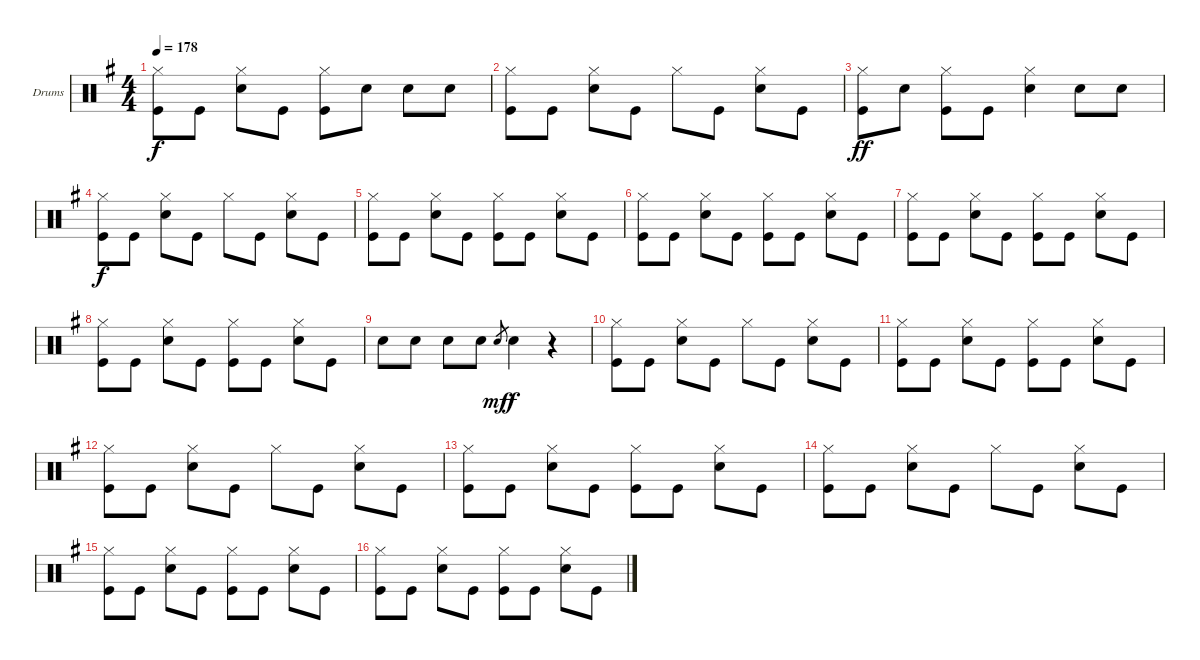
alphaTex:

\bracketExtendMode groupsimilarinstruments
\firstSystemTrackNameOrientation horizontal
\otherSystemsTrackNameOrientation horizontal
\track ("Drumkit" "Drums") {instrument percussion}
\staff {score}
\articulation defaults
\ts (4 4)
\tempo 178
\clef neutral
\ks eminor
("Hi-Hat (closed)" "Kick (hit)").8{dy f} "Kick (hit)".8 ("Hi-Hat (closed)" "Snare (hit) 2").8 "Kick (hit)".8 ("Hi-Hat (closed)" "Kick (hit)").8 "Snare (hit) 2".8 "Snare (hit) 2".8 "Snare (hit) 2".8 |
("Hi-Hat (closed)" "Kick (hit)").8 "Kick (hit)".8 ("Hi-Hat (closed)" "Snare (hit) 2").8 "Kick (hit)".8 "Hi-Hat (closed)".8 "Kick (hit)".8 ("Hi-Hat (closed)" "Snare (hit) 2").8 "Kick (hit)".8 |
("Hi-Hat (closed)" "Kick (hit)").8{dy ff} "Snare (hit) 2".8 ("Hi-Hat (closed)" "Kick (hit)").8 "Kick (hit)".8 ("Hi-Hat (closed)" "Snare (hit) 2").4 "Snare (hit) 2".8 "Snare (hit) 2".8 |
("Hi-Hat (closed)" "Kick (hit)").8{dy f} "Kick (hit)".8 ("Hi-Hat (closed)" "Snare (hit) 2").8 "Kick (hit)".8 "Hi-Hat (closed)".8 "Kick (hit)".8 ("Hi-Hat (closed)" "Snare (hit) 2").8 "Kick (hit)".8 |
("Hi-Hat (closed)" "Kick (hit)").8 "Kick (hit)".8 ("Hi-Hat (closed)" "Snare (hit) 2").8 "Kick (hit)".8 ("Hi-Hat (closed)" "Kick (hit)").8 "Kick (hit)".8 ("Hi-Hat (closed)" "Snare (hit) 2").8 "Kick (hit)".8 |
("Hi-Hat (closed)" "Kick (hit)").8 "Kick (hit)".8 ("Hi-Hat (closed)" "Snare (hit) 2").8 "Kick (hit)".8 ("Hi-Hat (closed)" "Kick (hit)").8 "Kick (hit)".8 ("Hi-Hat (closed)" "Snare (hit) 2").8 "Kick (hit)".8 |
("Hi-Hat (closed)" "Kick (hit)").8 "Kick (hit)".8 ("Hi-Hat (closed)" "Snare (hit) 2").8 "Kick (hit)".8 ("Hi-Hat (closed)" "Kick (hit)").8 "Kick (hit)".8 ("Hi-Hat (closed)" "Snare (hit) 2").8 "Kick (hit)".8 |
("Hi-Hat (closed)" "Kick (hit)").8 "Kick (hit)".8 ("Hi-Hat (closed)" "Snare (hit) 2").8 "Kick (hit)".8 ("Hi-Hat (closed)" "Kick (hit)").8 "Kick (hit)".8 ("Hi-Hat (closed)" "Snare (hit) 2").8 "Kick (hit)".8 |
"Snare (hit) 2".8 "Snare (hit) 2".8 "Snare (hit) 2".8 "Snare (hit) 2".8 "Snare (hit) 2".8{gr dy mf} "Snare (hit) 2".4{dy f} r.4 |
("Hi-Hat (closed)" "Kick (hit)").8 "Kick (hit)".8 ("Hi-Hat (closed)" "Snare (hit) 2").8 "Kick (hit)".8 "Hi-Hat (closed)".8 "Kick (hit)".8 ("Hi-Hat (closed)" "Snare (hit) 2").8 "Kick (hit)".8 |
("Hi-Hat (closed)" "Kick (hit)").8 "Kick (hit)".8 ("Hi-Hat (closed)" "Snare (hit) 2").8 "Kick (hit)".8 ("Hi-Hat (closed)" "Kick (hit)").8 "Kick (hit)".8 ("Hi-Hat (closed)" "Snare (hit) 2").8 "Kick (hit)".8 |
("Hi-Hat (closed)" "Kick (hit)").8 "Kick (hit)".8 ("Hi-Hat (closed)" "Snare (hit) 2").8 "Kick (hit)".8 "Hi-Hat (closed)".8 "Kick (hit)".8 ("Hi-Hat (closed)" "Snare (hit) 2").8 "Kick (hit)".8 |
("Hi-Hat (closed)" "Kick (hit)").8 "Kick (hit)".8 ("Hi-Hat (closed)" "Snare (hit) 2").8 "Kick (hit)".8 ("Hi-Hat (closed)" "Kick (hit)").8 "Kick (hit)".8 ("Hi-Hat (closed)" "Snare (hit) 2").8 "Kick (hit)".8 |
("Hi-Hat (closed)" "Kick (hit)").8 "Kick (hit)".8 ("Hi-Hat (closed)" "Snare (hit) 2").8 "Kick (hit)".8 "Hi-Hat (closed)".8 "Kick (hit)".8 ("Hi-Hat (closed)" "Snare (hit) 2").8 "Kick (hit)".8 |
("Hi-Hat (closed)" "Kick (hit)").8 "Kick (hit)".8 ("Hi-Hat (closed)" "Snare (hit) 2").8 "Kick (hit)".8 ("Hi-Hat (closed)" "Kick (hit)").8 "Kick (hit)".8 ("Hi-Hat (closed)" "Snare (hit) 2").8 "Kick (hit)".8 |
("Hi-Hat (closed)" "Kick (hit)").8 "Kick (hit)".8 ("Hi-Hat (closed)" "Snare (hit) 2").8 "Kick (hit)".8 ("Hi-Hat (closed)" "Kick (hit)").8 "Kick (hit)".8 ("Hi-Hat (closed)" "Snare (hit) 2").8 "Kick (hit)".8
